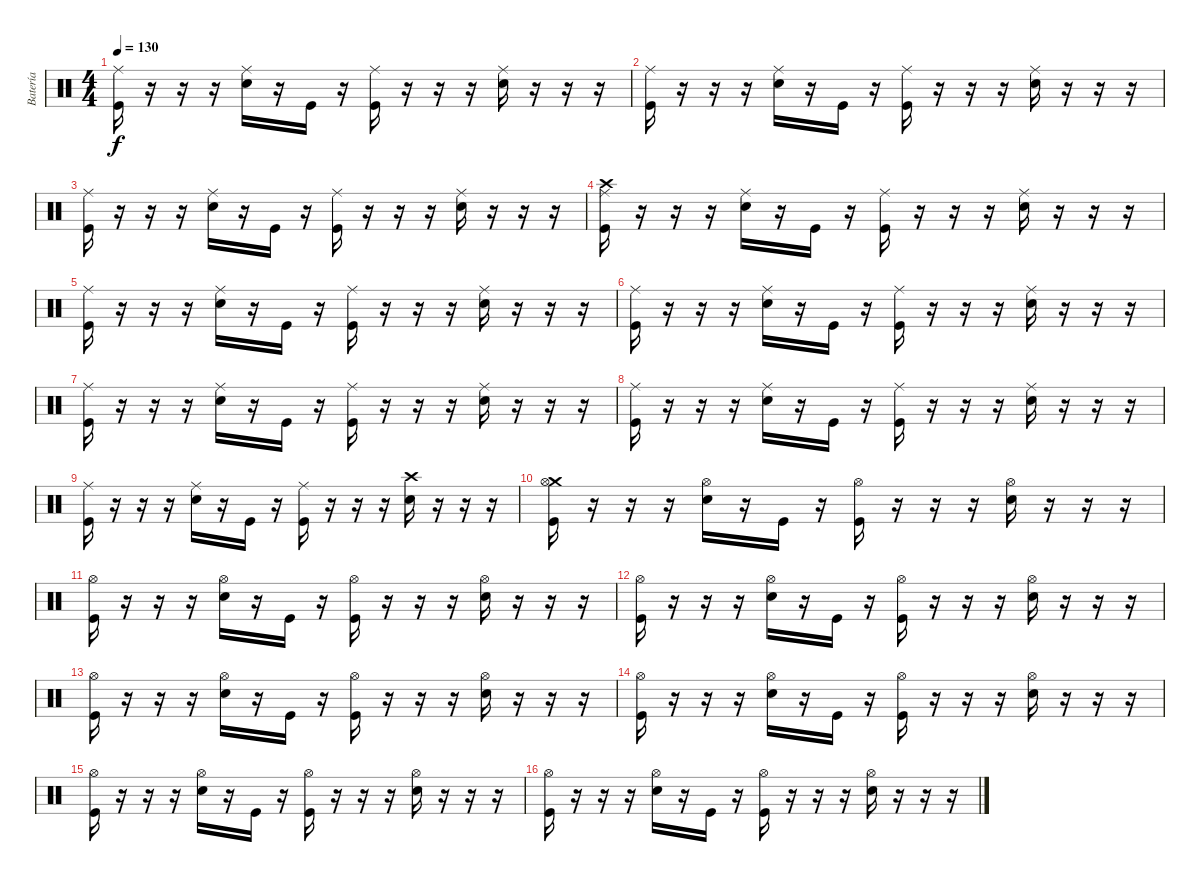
\track ("Batería" "Batería") {instrument percussion}
\staff {score}
\articulation defaults
\ts (4 4)
\tempo 130
\clef neutral
\ks c
("Ride (middle)" "Kick (hit)").16{dy f} r.16 r.16 r.16 ("Ride (middle)" "Snare (hit) 2").16 r.16 "Kick (hit)".16 r.16 ("Ride (middle)" "Kick (hit)").16 r.16 r.16 r.16 ("Ride (middle)" "Snare (hit) 2").16 r.16 r.16 r.16 |
("Ride (middle)" "Kick (hit)").16 r.16 r.16 r.16 ("Ride (middle)" "Snare (hit) 2").16 r.16 "Kick (hit)".16 r.16 ("Ride (middle)" "Kick (hit)").16 r.16 r.16 r.16 ("Ride (middle)" "Snare (hit) 2").16 r.16 r.16 r.16 |
("Ride (middle)" "Kick (hit)").16 r.16 r.16 r.16 ("Ride (middle)" "Snare (hit) 2").16 r.16 "Kick (hit)".16 r.16 ("Ride (middle)" "Kick (hit)").16 r.16 r.16 r.16 ("Ride (middle)" "Snare (hit) 2").16 r.16 r.16 r.16 |
("Crash high (hit)" "Ride (middle)" "Kick (hit)").16 r.16 r.16 r.16 ("Ride (middle)" "Snare (hit) 2").16 r.16 "Kick (hit)".16 r.16 ("Ride (middle)" "Kick (hit)").16 r.16 r.16 r.16 ("Ride (middle)" "Snare (hit) 2").16 r.16 r.16 r.16 |
("Ride (middle)" "Kick (hit)").16 r.16 r.16 r.16 ("Ride (middle)" "Snare (hit) 2").16 r.16 "Kick (hit)".16 r.16 ("Ride (middle)" "Kick (hit)").16 r.16 r.16 r.16 ("Ride (middle)" "Snare (hit) 2").16 r.16 r.16 r.16 |
("Ride (middle)" "Kick (hit)").16 r.16 r.16 r.16 ("Ride (middle)" "Snare (hit) 2").16 r.16 "Kick (hit)".16 r.16 ("Ride (middle)" "Kick (hit)").16 r.16 r.16 r.16 ("Ride (middle)" "Snare (hit) 2").16 r.16 r.16 r.16 |
("Ride (middle)" "Kick (hit)").16 r.16 r.16 r.16 ("Ride (middle)" "Snare (hit) 2").16 r.16 "Kick (hit)".16 r.16 ("Ride (middle)" "Kick (hit)").16 r.16 r.16 r.16 ("Ride (middle)" "Snare (hit) 2").16 r.16 r.16 r.16 |
("Ride (middle)" "Kick (hit)").16 r.16 r.16 r.16 ("Ride (middle)" "Snare (hit) 2").16 r.16 "Kick (hit)".16 r.16 ("Ride (middle)" "Kick (hit)").16 r.16 r.16 r.16 ("Ride (middle)" "Snare (hit) 2").16 r.16 r.16 r.16 |
("Ride (middle)" "Kick (hit)").16 r.16 r.16 r.16 ("Ride (middle)" "Snare (hit) 2").16 r.16 "Kick (hit)".16 r.16 ("Ride (middle)" "Kick (hit)").16 r.16 r.16 r.16 ("Crash high (hit)" "Snare (hit) 2").16 r.16 r.16 r.16 |
("Crash medium (hit)" "Hi-Hat (open)" "Kick (hit)").16 r.16 r.16 r.16 ("Hi-Hat (open)" "Snare (hit) 2").16 r.16 "Kick (hit)".16 r.16 ("Hi-Hat (open)" "Kick (hit)").16 r.16 r.16 r.16 ("Hi-Hat (open)" "Snare (hit) 2").16 r.16 r.16 r.16 |
("Hi-Hat (open)" "Kick (hit)").16 r.16 r.16 r.16 ("Hi-Hat (open)" "Snare (hit) 2").16 r.16 "Kick (hit)".16 r.16 ("Hi-Hat (open)" "Kick (hit)").16 r.16 r.16 r.16 ("Hi-Hat (open)" "Snare (hit) 2").16 r.16 r.16 r.16 |
("Hi-Hat (open)" "Kick (hit)").16 r.16 r.16 r.16 ("Hi-Hat (open)" "Snare (hit) 2").16 r.16 "Kick (hit)".16 r.16 ("Hi-Hat (open)" "Kick (hit)").16 r.16 r.16 r.16 ("Hi-Hat (open)" "Snare (hit) 2").16 r.16 r.16 r.16 |
("Hi-Hat (open)" "Kick (hit)").16 r.16 r.16 r.16 ("Hi-Hat (open)" "Snare (hit) 2").16 r.16 "Kick (hit)".16 r.16 ("Hi-Hat (open)" "Kick (hit)").16 r.16 r.16 r.16 ("Hi-Hat (open)" "Snare (hit) 2").16 r.16 r.16 r.16 |
("Hi-Hat (open)" "Kick (hit)").16 r.16 r.16 r.16 ("Hi-Hat (open)" "Snare (hit) 2").16 r.16 "Kick (hit)".16 r.16 ("Hi-Hat (open)" "Kick (hit)").16 r.16 r.16 r.16 ("Hi-Hat (open)" "Snare (hit) 2").16 r.16 r.16 r.16 |
("Hi-Hat (open)" "Kick (hit)").16 r.16 r.16 r.16 ("Hi-Hat (open)" "Snare (hit) 2").16 r.16 "Kick (hit)".16 r.16 ("Hi-Hat (open)" "Kick (hit)").16 r.16 r.16 r.16 ("Hi-Hat (open)" "Snare (hit) 2").16 r.16 r.16 r.16 |
("Hi-Hat (open)" "Kick (hit)").16 r.16 r.16 r.16 ("Hi-Hat (open)" "Snare (hit) 2").16 r.16 "Kick (hit)".16 r.16 ("Hi-Hat (open)" "Kick (hit)").16 r.16 r.16 r.16 ("Hi-Hat (open)" "Snare (hit) 2").16 r.16 r.16 r.16
